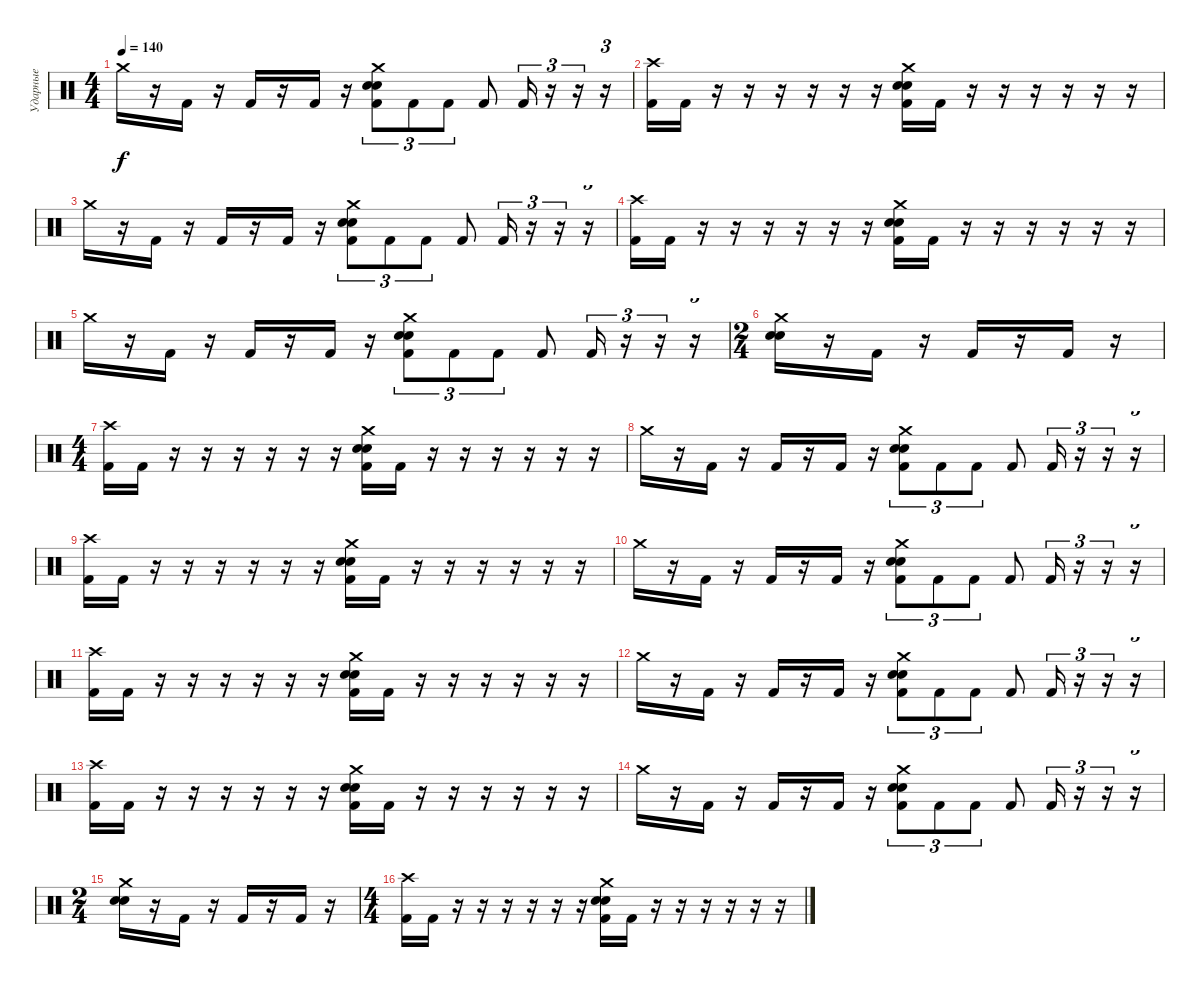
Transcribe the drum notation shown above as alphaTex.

\track ("Ударные" "Ударные") {instrument percussion}
\staff {score}
\articulation defaults
\ts (4 4)
\tempo 140
\clef neutral
\ks c "Crash medium (hit)".16{dy f}
r.16 "Kick (hit) 2".16 r.16 "Kick (hit) 2".16 r.16 "Kick (hit) 2".16 r.16 ("Crash medium (hit)" "Snare (hit) 2" "Electric Snare (hit)" "Kick (hit) 2").8{tu (3 2)} "Kick (hit) 2".8{tu (3 2)} "Kick (hit) 2".8{tu (3 2)} "Kick (hit) 2".8 "Kick (hit) 2".16{tu (3 2)} r.16{tu (3 2)} r.16{tu (3 2)} r.16{tu (3 2)} |
("Crash high (hit)" "Kick (hit) 2").16 "Kick (hit) 2".16 r.16 r.16 r.16 r.16 r.16 r.16 ("Crash medium (hit)" "Electric Snare (hit)" "Snare (hit) 2" "Kick (hit) 2").16 "Kick (hit) 2".16 r.16 r.16 r.16 r.16 r.16 r.16 |
"Crash medium (hit)".16 r.16 "Kick (hit) 2".16 r.16 "Kick (hit) 2".16 r.16 "Kick (hit) 2".16 r.16 ("Crash medium (hit)" "Snare (hit) 2" "Electric Snare (hit)" "Kick (hit) 2").8{tu (3 2)} "Kick (hit) 2".8{tu (3 2)} "Kick (hit) 2".8{tu (3 2)} "Kick (hit) 2".8 "Kick (hit) 2".16{tu (3 2)} r.16{tu (3 2)} r.16{tu (3 2)} r.16{tu (3 2)} |
("Crash high (hit)" "Kick (hit) 2").16 "Kick (hit) 2".16 r.16 r.16 r.16 r.16 r.16 r.16 ("Crash medium (hit)" "Electric Snare (hit)" "Snare (hit) 2" "Kick (hit) 2").16 "Kick (hit) 2".16 r.16 r.16 r.16 r.16 r.16 r.16 |
"Crash medium (hit)".16 r.16 "Kick (hit) 2".16 r.16 "Kick (hit) 2".16 r.16 "Kick (hit) 2".16 r.16 ("Crash medium (hit)" "Snare (hit) 2" "Electric Snare (hit)" "Kick (hit) 2").8{tu (3 2)} "Kick (hit) 2".8{tu (3 2)} "Kick (hit) 2".8{tu (3 2)} "Kick (hit) 2".8 "Kick (hit) 2".16{tu (3 2)} r.16{tu (3 2)} r.16{tu (3 2)} r.16{tu (3 2)} |
\ts (2 4)
("Crash medium (hit)" "Electric Snare (hit)" "Snare (hit) 2").16 r.16 "Kick (hit) 2".16 r.16 "Kick (hit) 2".16 r.16 "Kick (hit) 2".16 r.16 |
\ts (4 4)
("Crash high (hit)" "Kick (hit) 2").16 "Kick (hit) 2".16 r.16 r.16 r.16 r.16 r.16 r.16 ("Crash medium (hit)" "Electric Snare (hit)" "Snare (hit) 2" "Kick (hit) 2").16 "Kick (hit) 2".16 r.16 r.16 r.16 r.16 r.16 r.16 |
"Crash medium (hit)".16 r.16 "Kick (hit) 2".16 r.16 "Kick (hit) 2".16 r.16 "Kick (hit) 2".16 r.16 ("Crash medium (hit)" "Snare (hit) 2" "Electric Snare (hit)" "Kick (hit) 2").8{tu (3 2)} "Kick (hit) 2".8{tu (3 2)} "Kick (hit) 2".8{tu (3 2)} "Kick (hit) 2".8 "Kick (hit) 2".16{tu (3 2)} r.16{tu (3 2)} r.16{tu (3 2)} r.16{tu (3 2)} |
("Crash high (hit)" "Kick (hit) 2").16 "Kick (hit) 2".16 r.16 r.16 r.16 r.16 r.16 r.16 ("Crash medium (hit)" "Electric Snare (hit)" "Snare (hit) 2" "Kick (hit) 2").16 "Kick (hit) 2".16 r.16 r.16 r.16 r.16 r.16 r.16 |
"Crash medium (hit)".16 r.16 "Kick (hit) 2".16 r.16 "Kick (hit) 2".16 r.16 "Kick (hit) 2".16 r.16 ("Crash medium (hit)" "Snare (hit) 2" "Electric Snare (hit)" "Kick (hit) 2").8{tu (3 2)} "Kick (hit) 2".8{tu (3 2)} "Kick (hit) 2".8{tu (3 2)} "Kick (hit) 2".8 "Kick (hit) 2".16{tu (3 2)} r.16{tu (3 2)} r.16{tu (3 2)} r.16{tu (3 2)} |
("Crash high (hit)" "Kick (hit) 2").16 "Kick (hit) 2".16 r.16 r.16 r.16 r.16 r.16 r.16 ("Crash medium (hit)" "Electric Snare (hit)" "Snare (hit) 2" "Kick (hit) 2").16 "Kick (hit) 2".16 r.16 r.16 r.16 r.16 r.16 r.16 |
"Crash medium (hit)".16 r.16 "Kick (hit) 2".16 r.16 "Kick (hit) 2".16 r.16 "Kick (hit) 2".16 r.16 ("Crash medium (hit)" "Snare (hit) 2" "Electric Snare (hit)" "Kick (hit) 2").8{tu (3 2)} "Kick (hit) 2".8{tu (3 2)} "Kick (hit) 2".8{tu (3 2)} "Kick (hit) 2".8 "Kick (hit) 2".16{tu (3 2)} r.16{tu (3 2)} r.16{tu (3 2)} r.16{tu (3 2)} |
("Crash high (hit)" "Kick (hit) 2").16 "Kick (hit) 2".16 r.16 r.16 r.16 r.16 r.16 r.16 ("Crash medium (hit)" "Electric Snare (hit)" "Snare (hit) 2" "Kick (hit) 2").16 "Kick (hit) 2".16 r.16 r.16 r.16 r.16 r.16 r.16 |
"Crash medium (hit)".16 r.16 "Kick (hit) 2".16 r.16 "Kick (hit) 2".16 r.16 "Kick (hit) 2".16 r.16 ("Crash medium (hit)" "Snare (hit) 2" "Electric Snare (hit)" "Kick (hit) 2").8{tu (3 2)} "Kick (hit) 2".8{tu (3 2)} "Kick (hit) 2".8{tu (3 2)} "Kick (hit) 2".8 "Kick (hit) 2".16{tu (3 2)} r.16{tu (3 2)} r.16{tu (3 2)} r.16{tu (3 2)} |
\ts (2 4)
("Crash medium (hit)" "Electric Snare (hit)" "Snare (hit) 2").16 r.16 "Kick (hit) 2".16 r.16 "Kick (hit) 2".16 r.16 "Kick (hit) 2".16 r.16 |
\ts (4 4)
("Crash high (hit)" "Kick (hit) 2").16 "Kick (hit) 2".16 r.16 r.16 r.16 r.16 r.16 r.16 ("Crash medium (hit)" "Electric Snare (hit)" "Snare (hit) 2" "Kick (hit) 2").16 "Kick (hit) 2".16 r.16 r.16 r.16 r.16 r.16 r.16
